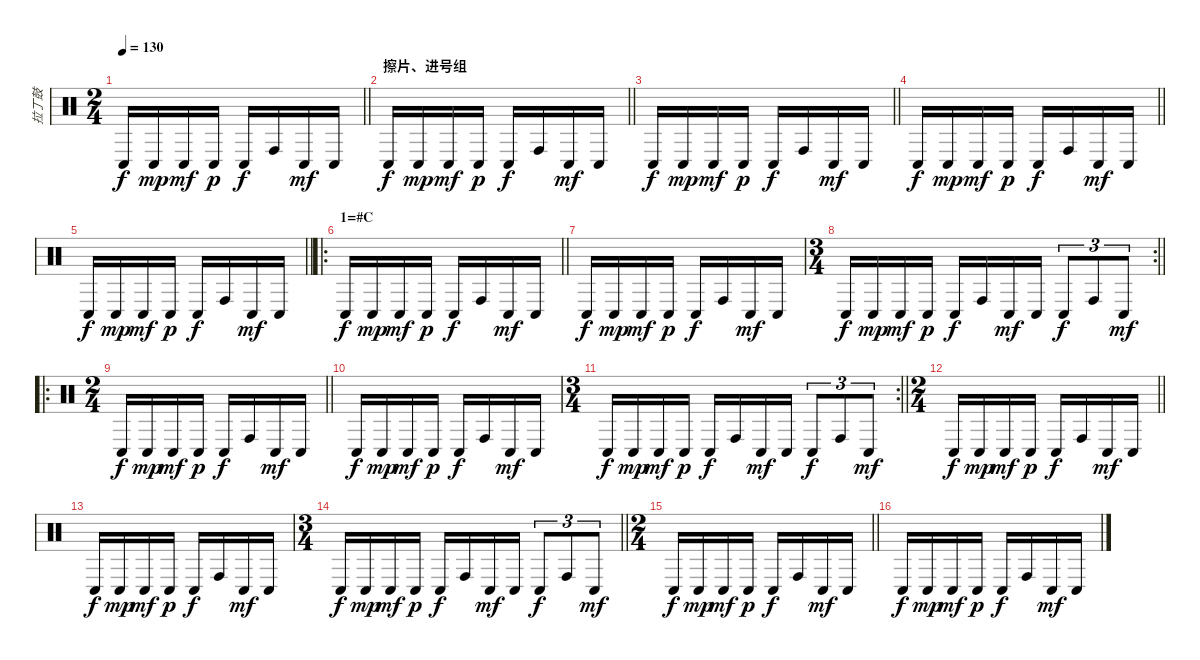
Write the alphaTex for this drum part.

\track ("拉丁鼓" "拉丁鼓") {instrument percussion}
\staff {score}
\articulation defaults
\ts (2 4)
\tempo 130
\clef neutral
\barLineRight lightlight
\ks c "Conga low (hit)".16{dy f} "Conga low (hit)".16{dy mp} "Conga low (hit)".16{dy mf} "Conga low (hit)".16{dy p} "Conga low (hit)".16{dy f} "Conga high (hit)".16 "Conga low (hit)".16{dy mf} "Conga low (hit)".16
|
\section ("" "擦片、进号组")
\barLineRight lightlight "Conga low (hit)".16{dy f} "Conga low (hit)".16{dy mp} "Conga low (hit)".16{dy mf} "Conga low (hit)".16{dy p} "Conga low (hit)".16{dy f} "Conga high (hit)".16 "Conga low (hit)".16{dy mf} "Conga low (hit)".16
|
\barLineRight lightlight "Conga low (hit)".16{dy f} "Conga low (hit)".16{dy mp} "Conga low (hit)".16{dy mf} "Conga low (hit)".16{dy p} "Conga low (hit)".16{dy f} "Conga high (hit)".16 "Conga low (hit)".16{dy mf} "Conga low (hit)".16
|
\barLineRight lightlight "Conga low (hit)".16{dy f} "Conga low (hit)".16{dy mp} "Conga low (hit)".16{dy mf} "Conga low (hit)".16{dy p} "Conga low (hit)".16{dy f} "Conga high (hit)".16 "Conga low (hit)".16{dy mf} "Conga low (hit)".16
|
\barLineRight lightlight "Conga low (hit)".16{dy f} "Conga low (hit)".16{dy mp} "Conga low (hit)".16{dy mf} "Conga low (hit)".16{dy p} "Conga low (hit)".16{dy f} "Conga high (hit)".16 "Conga low (hit)".16{dy mf} "Conga low (hit)".16
|
\ro
\section ("" "1=#C")
\barLineRight lightlight "Conga low (hit)".16{dy f} "Conga low (hit)".16{dy mp} "Conga low (hit)".16{dy mf} "Conga low (hit)".16{dy p} "Conga low (hit)".16{dy f} "Conga high (hit)".16 "Conga low (hit)".16{dy mf} "Conga low (hit)".16
|
"Conga low (hit)".16{dy f} "Conga low (hit)".16{dy mp} "Conga low (hit)".16{dy mf} "Conga low (hit)".16{dy p} "Conga low (hit)".16{dy f} "Conga high (hit)".16 "Conga low (hit)".16{dy mf} "Conga low (hit)".16 |
\rc 2
\ts (3 4)
\barLineRight lightlight "Conga low (hit)".16{dy f} "Conga low (hit)".16{dy mp} "Conga low (hit)".16{dy mf} "Conga low (hit)".16{dy p} "Conga low (hit)".16{dy f} "Conga high (hit)".16 "Conga low (hit)".16{dy mf} "Conga low (hit)".16 "Conga low (hit)".8{tu (3 2) dy f} "Conga high (hit)".8{tu (3 2)} "Conga low (hit)".8{tu (3 2) dy mf}
|
\ro
\ts (2 4)
\barLineRight lightlight "Conga low (hit)".16{dy f} "Conga low (hit)".16{dy mp} "Conga low (hit)".16{dy mf} "Conga low (hit)".16{dy p} "Conga low (hit)".16{dy f} "Conga high (hit)".16 "Conga low (hit)".16{dy mf} "Conga low (hit)".16
|
"Conga low (hit)".16{dy f} "Conga low (hit)".16{dy mp} "Conga low (hit)".16{dy mf} "Conga low (hit)".16{dy p} "Conga low (hit)".16{dy f} "Conga high (hit)".16 "Conga low (hit)".16{dy mf} "Conga low (hit)".16 |
\rc 2
\ts (3 4)
\barLineRight lightlight "Conga low (hit)".16{dy f} "Conga low (hit)".16{dy mp} "Conga low (hit)".16{dy mf} "Conga low (hit)".16{dy p} "Conga low (hit)".16{dy f} "Conga high (hit)".16 "Conga low (hit)".16{dy mf} "Conga low (hit)".16 "Conga low (hit)".8{tu (3 2) dy f} "Conga high (hit)".8{tu (3 2)} "Conga low (hit)".8{tu (3 2) dy mf}
|
\ts (2 4)
\barLineRight lightlight "Conga low (hit)".16{dy f} "Conga low (hit)".16{dy mp} "Conga low (hit)".16{dy mf} "Conga low (hit)".16{dy p} "Conga low (hit)".16{dy f} "Conga high (hit)".16 "Conga low (hit)".16{dy mf} "Conga low (hit)".16
|
"Conga low (hit)".16{dy f} "Conga low (hit)".16{dy mp} "Conga low (hit)".16{dy mf} "Conga low (hit)".16{dy p} "Conga low (hit)".16{dy f} "Conga high (hit)".16 "Conga low (hit)".16{dy mf} "Conga low (hit)".16 |
\ts (3 4)
\barLineRight lightlight "Conga low (hit)".16{dy f} "Conga low (hit)".16{dy mp} "Conga low (hit)".16{dy mf} "Conga low (hit)".16{dy p} "Conga low (hit)".16{dy f} "Conga high (hit)".16 "Conga low (hit)".16{dy mf} "Conga low (hit)".16 "Conga low (hit)".8{tu (3 2) dy f} "Conga high (hit)".8{tu (3 2)} "Conga low (hit)".8{tu (3 2) dy mf}
|
\ts (2 4)
\barLineRight lightlight "Conga low (hit)".16{dy f} "Conga low (hit)".16{dy mp} "Conga low (hit)".16{dy mf} "Conga low (hit)".16{dy p} "Conga low (hit)".16{dy f} "Conga high (hit)".16 "Conga low (hit)".16{dy mf} "Conga low (hit)".16
|
"Conga low (hit)".16{dy f} "Conga low (hit)".16{dy mp} "Conga low (hit)".16{dy mf} "Conga low (hit)".16{dy p} "Conga low (hit)".16{dy f} "Conga high (hit)".16 "Conga low (hit)".16{dy mf} "Conga low (hit)".16
